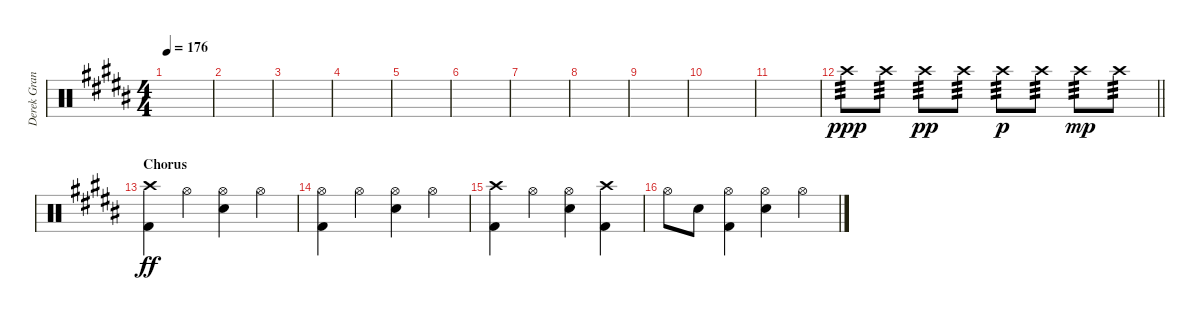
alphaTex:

\track ("Derek Grant - Drums" "Derek Gran") {instrument percussion}
\staff {score}
\articulation defaults
\ts (4 4)
\tempo 176
\clef neutral
\ks b
|
|
|
|
|
|
|
|
|
|
|
\barLineRight lightlight "Crash high (hit)".8{tp 3 dy ppp volume 10} "Crash high (hit)".8{tp 3} "Crash high (hit)".8{tp 3 dy pp} "Crash high (hit)".8{tp 3} "Crash high (hit)".8{tp 3 dy p} "Crash high (hit)".8{tp 3} "Crash high (hit)".8{tp 3 dy mp} "Crash high (hit)".8{tp 3}
|
\section ("" "Chorus")
("Crash high (hit)" "Kick (hit) 2").4{dy ff volume 10} "Hi-Hat (open)".4 ("Hi-Hat (open)" "Snare (hit) 2").4 "Hi-Hat (open)".4 |
("Hi-Hat (open)" "Kick (hit) 2").4 "Hi-Hat (open)".4 ("Hi-Hat (open)" "Snare (hit) 2").4 "Hi-Hat (open)".4 |
("Crash high (hit)" "Kick (hit) 2").4 "Hi-Hat (open)".4 ("Hi-Hat (open)" "Snare (hit) 2").4 ("Crash high (hit)" "Kick (hit) 2").4 |
"Hi-Hat (open)".8 "Snare (hit) 2".8 ("Kick (hit) 2" "Hi-Hat (open)").4 ("Hi-Hat (open)" "Snare (hit) 2").4 "Hi-Hat (open)".4
